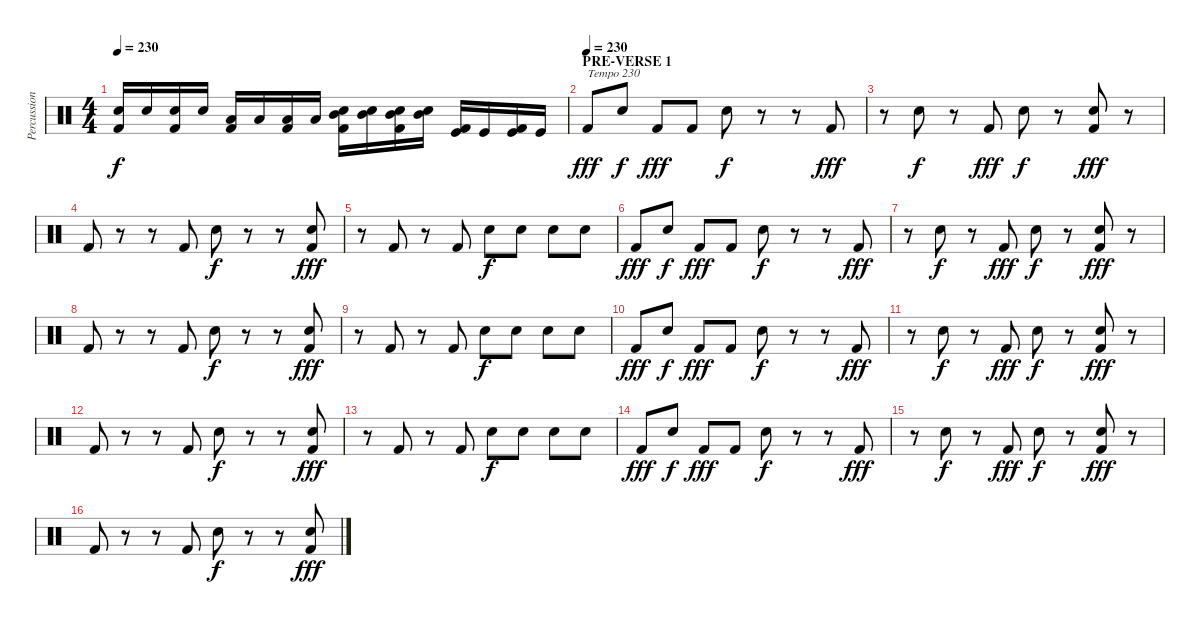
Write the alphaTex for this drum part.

\track ("Percussions" "Percussion") {instrument percussion}
\staff {score}
\articulation defaults
\ts (4 4)
\tempo 230
\clef neutral
\ks c
("Snare (hit) 2" "Kick (hit) 2").16{dy f} "Snare (hit) 2".16 ("Snare (hit) 2" "Kick (hit) 2").16 "Snare (hit) 2".16 ("Low Tom (hit)" "Kick (hit) 2").16 "Low Tom (hit)".16 ("Low Tom (hit)" "Kick (hit) 2").16 "Low Tom (hit)".16 ("Snare (hit) 2" "Mid Tom (hit)" "Kick (hit) 2").16 ("Snare (hit) 2" "Mid Tom (hit)").16 ("Snare (hit) 2" "Mid Tom (hit)" "Kick (hit) 2").16 ("Snare (hit) 2" "Mid Tom (hit)").16 ("Kick (hit)" "Kick (hit) 2").16 "Kick (hit)".16 ("Kick (hit)" "Kick (hit) 2").16 "Kick (hit)".16 |
\section ("" "PRE-VERSE 1")
\tempo (230)
"Kick (hit) 2".8{txt "Tempo 230" dy fff} "Snare (hit) 2".8{dy f} "Kick (hit) 2".8{dy fff} "Kick (hit) 2".8 "Snare (hit) 2".8{dy f} r.8 r.8 "Kick (hit) 2".8{dy fff} |
r.8 "Snare (hit) 2".8{dy f} r.8 "Kick (hit) 2".8{dy fff} "Snare (hit) 2".8{dy f} r.8 ("Snare (hit) 2" "Kick (hit) 2").8{dy fff} r.8 |
"Kick (hit) 2".8 r.8 r.8 "Kick (hit) 2".8 "Snare (hit) 2".8{dy f} r.8 r.8 ("Snare (hit) 2" "Kick (hit) 2").8{dy fff} |
r.8 "Kick (hit) 2".8 r.8 "Kick (hit) 2".8 "Snare (hit) 2".8{dy f} "Snare (hit) 2".8 "Snare (hit) 2".8 "Snare (hit) 2".8 |
"Kick (hit) 2".8{dy fff} "Snare (hit) 2".8{dy f} "Kick (hit) 2".8{dy fff} "Kick (hit) 2".8 "Snare (hit) 2".8{dy f} r.8 r.8 "Kick (hit) 2".8{dy fff} |
r.8 "Snare (hit) 2".8{dy f} r.8 "Kick (hit) 2".8{dy fff} "Snare (hit) 2".8{dy f} r.8 ("Snare (hit) 2" "Kick (hit) 2").8{dy fff} r.8 |
"Kick (hit) 2".8 r.8 r.8 "Kick (hit) 2".8 "Snare (hit) 2".8{dy f} r.8 r.8 ("Snare (hit) 2" "Kick (hit) 2").8{dy fff} |
r.8 "Kick (hit) 2".8 r.8 "Kick (hit) 2".8 "Snare (hit) 2".8{dy f} "Snare (hit) 2".8 "Snare (hit) 2".8 "Snare (hit) 2".8 |
"Kick (hit) 2".8{dy fff} "Snare (hit) 2".8{dy f} "Kick (hit) 2".8{dy fff} "Kick (hit) 2".8 "Snare (hit) 2".8{dy f} r.8 r.8 "Kick (hit) 2".8{dy fff} |
r.8 "Snare (hit) 2".8{dy f} r.8 "Kick (hit) 2".8{dy fff} "Snare (hit) 2".8{dy f} r.8 ("Snare (hit) 2" "Kick (hit) 2").8{dy fff} r.8 |
"Kick (hit) 2".8 r.8 r.8 "Kick (hit) 2".8 "Snare (hit) 2".8{dy f} r.8 r.8 ("Snare (hit) 2" "Kick (hit) 2").8{dy fff} |
r.8 "Kick (hit) 2".8 r.8 "Kick (hit) 2".8 "Snare (hit) 2".8{dy f} "Snare (hit) 2".8 "Snare (hit) 2".8 "Snare (hit) 2".8 |
"Kick (hit) 2".8{dy fff} "Snare (hit) 2".8{dy f} "Kick (hit) 2".8{dy fff} "Kick (hit) 2".8 "Snare (hit) 2".8{dy f} r.8 r.8 "Kick (hit) 2".8{dy fff} |
r.8 "Snare (hit) 2".8{dy f} r.8 "Kick (hit) 2".8{dy fff} "Snare (hit) 2".8{dy f} r.8 ("Snare (hit) 2" "Kick (hit) 2").8{dy fff} r.8 |
"Kick (hit) 2".8 r.8 r.8 "Kick (hit) 2".8 "Snare (hit) 2".8{dy f} r.8 r.8 ("Snare (hit) 2" "Kick (hit) 2").8{dy fff}
